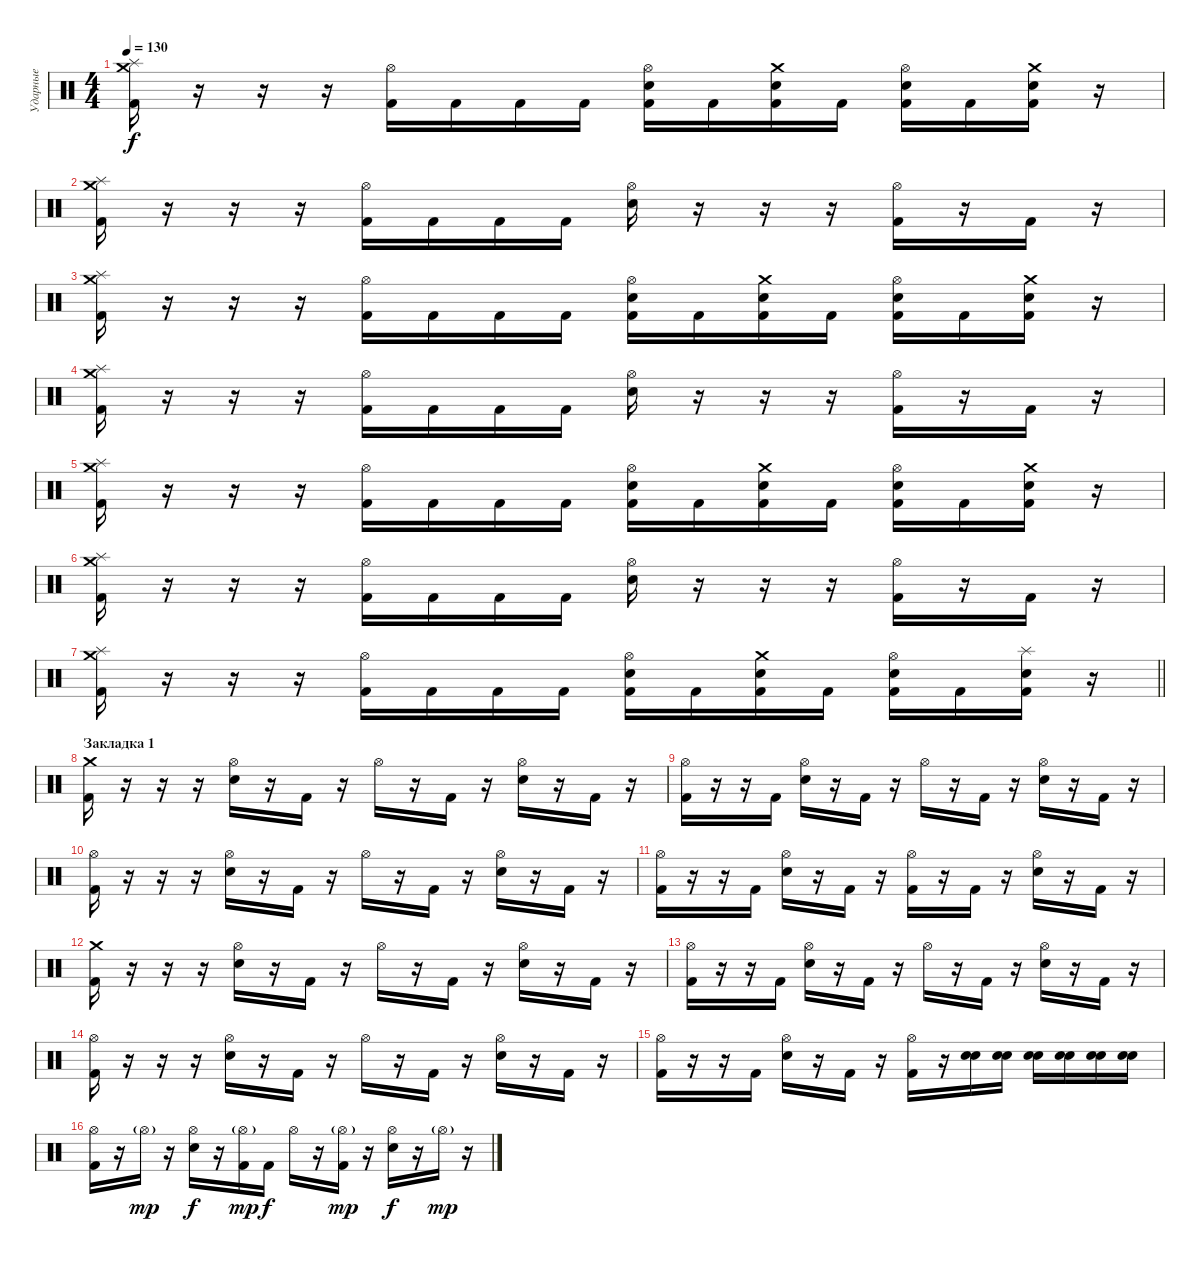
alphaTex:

\track ("Ударные" "Ударные") {instrument percussion}
\staff {score}
\articulation defaults
\ts (4 4)
\tempo 130
\clef neutral
\ks c
("Splash (hit)" "Crash medium (hit)" "Kick (hit) 2").16{dy f} r.16 r.16 r.16 ("Hi-Hat (open)" "Kick (hit) 2").16 "Kick (hit) 2".16 "Kick (hit) 2".16 "Kick (hit) 2".16 ("Hi-Hat (open)" "Snare (hit) 2" "Kick (hit) 2").16 "Kick (hit) 2".16 ("Crash medium (hit)" "Snare (hit) 2" "Kick (hit) 2").16 "Kick (hit) 2".16 ("Hi-Hat (open)" "Snare (hit) 2" "Kick (hit) 2").16 "Kick (hit) 2".16 ("Crash medium (hit)" "Snare (hit) 2" "Kick (hit) 2").16 r.16 |
("Splash (hit)" "Crash medium (hit)" "Kick (hit) 2").16 r.16 r.16 r.16 ("Hi-Hat (open)" "Kick (hit) 2").16 "Kick (hit) 2".16 "Kick (hit) 2".16 "Kick (hit) 2".16 ("Hi-Hat (open)" "Snare (hit) 2").16 r.16 r.16 r.16 ("Hi-Hat (open)" "Kick (hit) 2").16 r.16 "Kick (hit) 2".16 r.16 |
("Splash (hit)" "Crash medium (hit)" "Kick (hit) 2").16 r.16 r.16 r.16 ("Hi-Hat (open)" "Kick (hit) 2").16 "Kick (hit) 2".16 "Kick (hit) 2".16 "Kick (hit) 2".16 ("Hi-Hat (open)" "Snare (hit) 2" "Kick (hit) 2").16 "Kick (hit) 2".16 ("Crash medium (hit)" "Snare (hit) 2" "Kick (hit) 2").16 "Kick (hit) 2".16 ("Hi-Hat (open)" "Snare (hit) 2" "Kick (hit) 2").16 "Kick (hit) 2".16 ("Crash medium (hit)" "Snare (hit) 2" "Kick (hit) 2").16 r.16 |
("Splash (hit)" "Crash medium (hit)" "Kick (hit) 2").16 r.16 r.16 r.16 ("Hi-Hat (open)" "Kick (hit) 2").16 "Kick (hit) 2".16 "Kick (hit) 2".16 "Kick (hit) 2".16 ("Hi-Hat (open)" "Snare (hit) 2").16 r.16 r.16 r.16 ("Hi-Hat (open)" "Kick (hit) 2").16 r.16 "Kick (hit) 2".16 r.16 |
("Splash (hit)" "Crash medium (hit)" "Kick (hit) 2").16 r.16 r.16 r.16 ("Hi-Hat (open)" "Kick (hit) 2").16 "Kick (hit) 2".16 "Kick (hit) 2".16 "Kick (hit) 2".16 ("Hi-Hat (open)" "Snare (hit) 2" "Kick (hit) 2").16 "Kick (hit) 2".16 ("Crash medium (hit)" "Snare (hit) 2" "Kick (hit) 2").16 "Kick (hit) 2".16 ("Hi-Hat (open)" "Snare (hit) 2" "Kick (hit) 2").16 "Kick (hit) 2".16 ("Crash medium (hit)" "Snare (hit) 2" "Kick (hit) 2").16 r.16 |
("Splash (hit)" "Crash medium (hit)" "Kick (hit) 2").16 r.16 r.16 r.16 ("Hi-Hat (open)" "Kick (hit) 2").16 "Kick (hit) 2".16 "Kick (hit) 2".16 "Kick (hit) 2".16 ("Hi-Hat (open)" "Snare (hit) 2").16 r.16 r.16 r.16 ("Hi-Hat (open)" "Kick (hit) 2").16 r.16 "Kick (hit) 2".16 r.16 |
\barLineRight lightlight
("Splash (hit)" "Crash medium (hit)" "Kick (hit) 2").16 r.16 r.16 r.16 ("Hi-Hat (open)" "Kick (hit) 2").16 "Kick (hit) 2".16 "Kick (hit) 2".16 "Kick (hit) 2".16 ("Hi-Hat (open)" "Snare (hit) 2" "Kick (hit) 2").16 "Kick (hit) 2".16 ("Crash medium (hit)" "Snare (hit) 2" "Kick (hit) 2").16 "Kick (hit) 2".16 ("Hi-Hat (open)" "Snare (hit) 2" "Kick (hit) 2").16 "Kick (hit) 2".16 ("Splash (hit)" "Snare (hit) 2" "Kick (hit) 2").16 r.16 |
\section ("" "Закладка 1")
("Crash medium (hit)" "Kick (hit) 2").16 r.16 r.16 r.16 ("Hi-Hat (open)" "Snare (hit) 2").16 r.16 "Kick (hit) 2".16 r.16 "Hi-Hat (open)".16 r.16 "Kick (hit) 2".16 r.16 ("Hi-Hat (open)" "Snare (hit) 2").16 r.16 "Kick (hit) 2".16 r.16 |
("Hi-Hat (open)" "Kick (hit) 2").16 r.16 r.16 "Kick (hit) 2".16 ("Hi-Hat (open)" "Snare (hit) 2").16 r.16 "Kick (hit) 2".16 r.16 "Hi-Hat (open)".16 r.16 "Kick (hit) 2".16 r.16 ("Hi-Hat (open)" "Snare (hit) 2").16 r.16 "Kick (hit) 2".16 r.16 |
("Hi-Hat (open)" "Kick (hit) 2").16 r.16 r.16 r.16 ("Hi-Hat (open)" "Snare (hit) 2").16 r.16 "Kick (hit) 2".16 r.16 "Hi-Hat (open)".16 r.16 "Kick (hit) 2".16 r.16 ("Hi-Hat (open)" "Snare (hit) 2").16 r.16 "Kick (hit) 2".16 r.16 |
("Hi-Hat (open)" "Kick (hit) 2").16 r.16 r.16 "Kick (hit) 2".16 ("Hi-Hat (open)" "Snare (hit) 2").16 r.16 "Kick (hit) 2".16 r.16 ("Hi-Hat (open)" "Kick (hit) 2").16 r.16 "Kick (hit) 2".16 r.16 ("Hi-Hat (open)" "Snare (hit) 2").16 r.16 "Kick (hit) 2".16 r.16 |
("Crash medium (hit)" "Kick (hit) 2").16 r.16 r.16 r.16 ("Hi-Hat (open)" "Snare (hit) 2").16 r.16 "Kick (hit) 2".16 r.16 "Hi-Hat (open)".16 r.16 "Kick (hit) 2".16 r.16 ("Hi-Hat (open)" "Snare (hit) 2").16 r.16 "Kick (hit) 2".16 r.16 |
("Hi-Hat (open)" "Kick (hit) 2").16 r.16 r.16 "Kick (hit) 2".16 ("Hi-Hat (open)" "Snare (hit) 2").16 r.16 "Kick (hit) 2".16 r.16 "Hi-Hat (open)".16 r.16 "Kick (hit) 2".16 r.16 ("Hi-Hat (open)" "Snare (hit) 2").16 r.16 "Kick (hit) 2".16 r.16 |
("Hi-Hat (open)" "Kick (hit) 2").16 r.16 r.16 r.16 ("Hi-Hat (open)" "Snare (hit) 2").16 r.16 "Kick (hit) 2".16 r.16 "Hi-Hat (open)".16 r.16 "Kick (hit) 2".16 r.16 ("Hi-Hat (open)" "Snare (hit) 2").16 r.16 "Kick (hit) 2".16 r.16 |
("Hi-Hat (open)" "Kick (hit) 2").16 r.16 r.16 "Kick (hit) 2".16 ("Hi-Hat (open)" "Snare (hit) 2").16 r.16 "Kick (hit) 2".16 r.16 ("Hi-Hat (open)" "Kick (hit) 2").16 r.16 ("Snare (hit) 2" "Snare (hit) 2").16 ("Snare (hit) 2" "Snare (hit) 2").16 ("Electric Snare (hit)" "Snare (hit) 2").16 ("Electric Snare (hit)" "Snare (hit) 2").16 ("Electric Snare (hit)" "Snare (hit) 2").16 ("Electric Snare (hit)" "Snare (hit) 2").16 |
("Hi-Hat (open)" "Kick (hit) 2").16 r.16 "Hi-Hat (open)"{g}.16{dy mp} r.16 ("Hi-Hat (open)" "Snare (hit) 2").16{dy f} r.16 ("Hi-Hat (open)"{g} "Kick (hit) 2").16{dy mp} "Kick (hit) 2".16{dy f} "Hi-Hat (open)".16 r.16 ("Hi-Hat (open)"{g} "Kick (hit) 2").16{dy mp} r.16 ("Hi-Hat (open)" "Snare (hit) 2").16{dy f} r.16 "Hi-Hat (open)"{g}.16{dy mp} r.16
